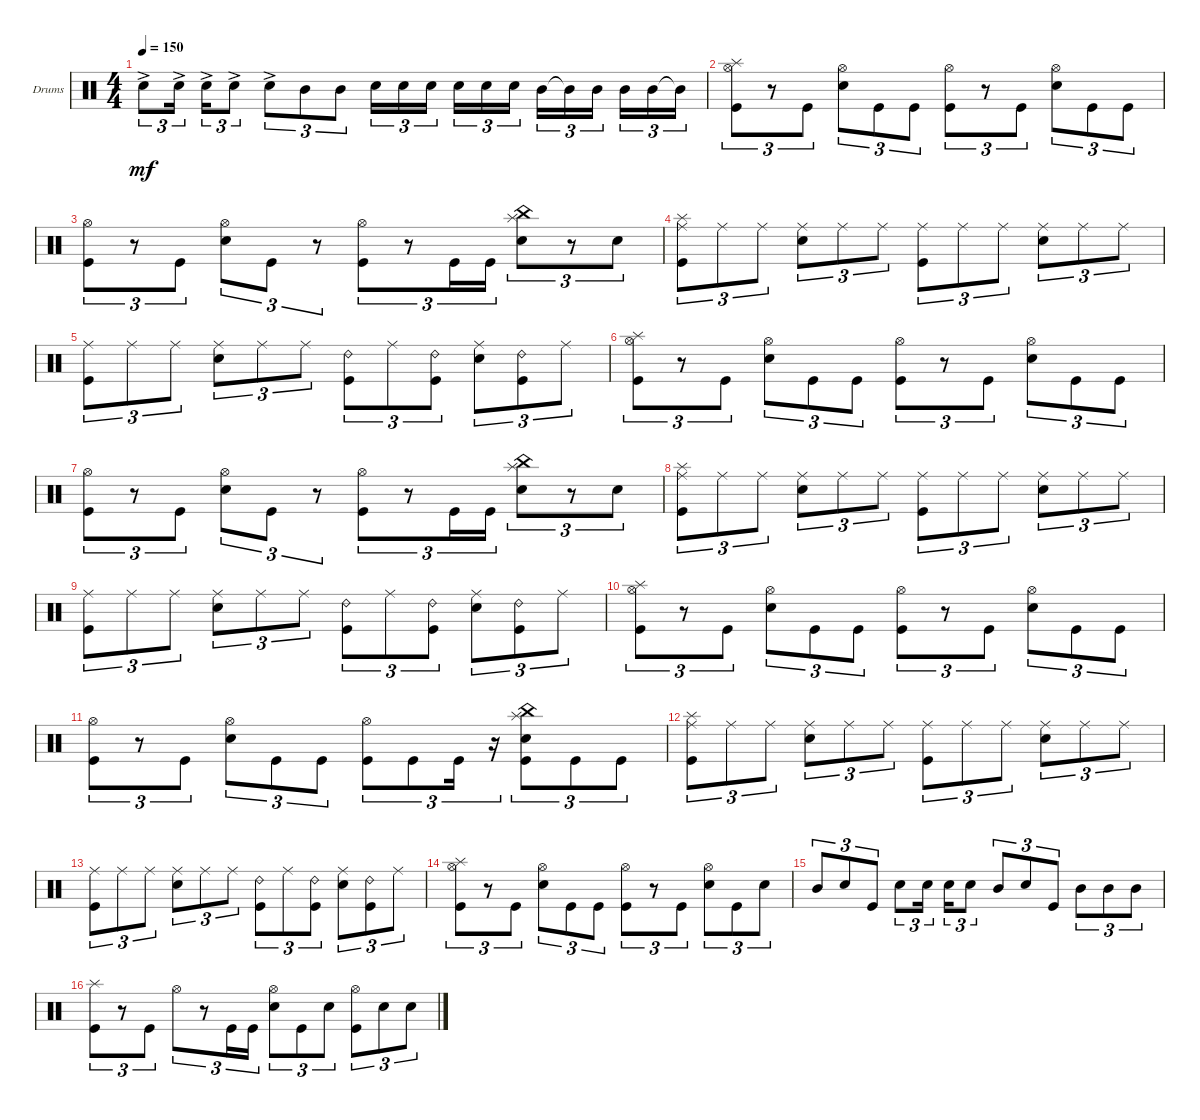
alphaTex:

\bracketExtendMode groupsimilarinstruments
\firstSystemTrackNameOrientation horizontal
\otherSystemsTrackNameOrientation horizontal
\track ("Drumkit" "Drums") {instrument percussion}
\staff {score}
\articulation defaults
\ts (4 4)
\tempo 150
\clef neutral
\ks c "Snare (hit) 2"{ac}.8{tu (3 2) dy mf} "Snare (hit) 2"{ac}.16{tu (3 2)} "Snare (hit) 2"{ac}.16{tu (3 2)} "Snare (hit) 2"{ac}.8{tu (3 2)} "Snare (hit) 2"{ac}.8{tu (3 2)} "Mid Tom (hit)".8{tu (3 2)} "Mid Tom (hit)".8{tu (3 2)} "Snare (hit) 2".16{tu (3 2)} "Snare (hit) 2".16{tu (3 2)} "Snare (hit) 2".16{tu (3 2)} "Snare (hit) 2".16{tu (3 2)} "Snare (hit) 2".16{tu (3 2)} "Snare (hit) 2".16{tu (3 2)} "Mid Tom (hit)".16{tu (3 2)} "Mid Tom (hit)"{t}.16{tu (3 2)} "Mid Tom (hit)".16{tu (3 2)} "Mid Tom (hit)".16{tu (3 2)} "Mid Tom (hit)".16{tu (3 2)} "Mid Tom (hit)"{t}.16{tu (3 2)}
|
("Kick (hit)" "Splash (hit)" "Hi-Hat (open)").8{tu (3 2)} r.8{tu (3 2)} "Kick (hit)".8{tu (3 2)} ("Snare (hit) 2" "Hi-Hat (open)").8{tu (3 2)} "Kick (hit)".8{tu (3 2)} "Kick (hit)".8{tu (3 2)} ("Kick (hit)" "Hi-Hat (open)").8{tu (3 2)} r.8{tu (3 2)} "Kick (hit)".8{tu (3 2)} ("Snare (hit) 2" "Hi-Hat (open)").8{tu (3 2)} "Kick (hit)".8{tu (3 2)} "Kick (hit)".8{tu (3 2)} |
("Kick (hit)" "Hi-Hat (open)").8{tu (3 2)} r.8{tu (3 2)} "Kick (hit)".8{tu (3 2)} ("Snare (hit) 2" "Hi-Hat (open)").8{tu (3 2)} "Kick (hit)".8{tu (3 2)} r.8{tu (3 2)} ("Kick (hit)" "Hi-Hat (open)").8{tu (3 2)} r.8{tu (3 2)} "Kick (hit)".16{tu (3 2)} "Kick (hit)".16{tu (3 2)} ("Snare (hit) 2" "China (hit)" "Splash (hit)").8{tu (3 2)} r.8{tu (3 2)} "Snare (hit) 2".8{tu (3 2)} |
("Kick (hit)" "Splash (hit)" "Ride (middle)").8{tu (3 2)} "Ride (middle)".8{tu (3 2)} "Ride (middle)".8{tu (3 2)} ("Snare (hit) 2" "Ride (middle)").8{tu (3 2)} "Ride (middle)".8{tu (3 2)} "Ride (middle)".8{tu (3 2)} ("Kick (hit)" "Ride (middle)").8{tu (3 2)} "Ride (middle)".8{tu (3 2)} "Ride (middle)".8{tu (3 2)} ("Snare (hit) 2" "Ride (middle)").8{tu (3 2)} "Ride (middle)".8{tu (3 2)} "Ride (middle)".8{tu (3 2)} |
("Kick (hit)" "Ride (middle)").8{tu (3 2)} "Ride (middle)".8{tu (3 2)} "Ride (middle)".8{tu (3 2)} ("Snare (hit) 2" "Ride (middle)").8{tu (3 2)} "Ride (middle)".8{tu (3 2)} "Ride (middle)".8{tu (3 2)} ("Kick (hit)" "Ride (bell) 2").8{tu (3 2)} "Ride (middle)".8{tu (3 2)} ("Kick (hit)" "Ride (bell) 2").8{tu (3 2)} ("Snare (hit) 2" "Ride (middle)").8{tu (3 2)} ("Kick (hit)" "Ride (bell) 2").8{tu (3 2)} "Ride (middle)".8{tu (3 2)} |
("Kick (hit)" "Splash (hit)" "Hi-Hat (open)").8{tu (3 2)} r.8{tu (3 2)} "Kick (hit)".8{tu (3 2)} ("Snare (hit) 2" "Hi-Hat (open)").8{tu (3 2)} "Kick (hit)".8{tu (3 2)} "Kick (hit)".8{tu (3 2)} ("Kick (hit)" "Hi-Hat (open)").8{tu (3 2)} r.8{tu (3 2)} "Kick (hit)".8{tu (3 2)} ("Snare (hit) 2" "Hi-Hat (open)").8{tu (3 2)} "Kick (hit)".8{tu (3 2)} "Kick (hit)".8{tu (3 2)} |
("Kick (hit)" "Hi-Hat (open)").8{tu (3 2)} r.8{tu (3 2)} "Kick (hit)".8{tu (3 2)} ("Snare (hit) 2" "Hi-Hat (open)").8{tu (3 2)} "Kick (hit)".8{tu (3 2)} r.8{tu (3 2)} ("Kick (hit)" "Hi-Hat (open)").8{tu (3 2)} r.8{tu (3 2)} "Kick (hit)".16{tu (3 2)} "Kick (hit)".16{tu (3 2)} ("Snare (hit) 2" "China (hit)" "Splash (hit)").8{tu (3 2)} r.8{tu (3 2)} "Snare (hit) 2".8{tu (3 2)} |
("Kick (hit)" "Splash (hit)" "Ride (middle)").8{tu (3 2)} "Ride (middle)".8{tu (3 2)} "Ride (middle)".8{tu (3 2)} ("Snare (hit) 2" "Ride (middle)").8{tu (3 2)} "Ride (middle)".8{tu (3 2)} "Ride (middle)".8{tu (3 2)} ("Kick (hit)" "Ride (middle)").8{tu (3 2)} "Ride (middle)".8{tu (3 2)} "Ride (middle)".8{tu (3 2)} ("Snare (hit) 2" "Ride (middle)").8{tu (3 2)} "Ride (middle)".8{tu (3 2)} "Ride (middle)".8{tu (3 2)} |
("Kick (hit)" "Ride (middle)").8{tu (3 2)} "Ride (middle)".8{tu (3 2)} "Ride (middle)".8{tu (3 2)} ("Snare (hit) 2" "Ride (middle)").8{tu (3 2)} "Ride (middle)".8{tu (3 2)} "Ride (middle)".8{tu (3 2)} ("Kick (hit)" "Ride (bell) 2").8{tu (3 2)} "Ride (middle)".8{tu (3 2)} ("Kick (hit)" "Ride (bell) 2").8{tu (3 2)} ("Snare (hit) 2" "Ride (middle)").8{tu (3 2)} ("Kick (hit)" "Ride (bell) 2").8{tu (3 2)} "Ride (middle)".8{tu (3 2)} |
("Kick (hit)" "Splash (hit)" "Hi-Hat (open)").8{tu (3 2)} r.8{tu (3 2)} "Kick (hit)".8{tu (3 2)} ("Snare (hit) 2" "Hi-Hat (open)").8{tu (3 2)} "Kick (hit)".8{tu (3 2)} "Kick (hit)".8{tu (3 2)} ("Kick (hit)" "Hi-Hat (open)").8{tu (3 2)} r.8{tu (3 2)} "Kick (hit)".8{tu (3 2)} ("Snare (hit) 2" "Hi-Hat (open)").8{tu (3 2)} "Kick (hit)".8{tu (3 2)} "Kick (hit)".8{tu (3 2)} |
("Kick (hit)" "Hi-Hat (open)").8{tu (3 2)} r.8{tu (3 2)} "Kick (hit)".8{tu (3 2)} ("Snare (hit) 2" "Hi-Hat (open)").8{tu (3 2)} "Kick (hit)".8{tu (3 2)} "Kick (hit)".8{tu (3 2)} ("Kick (hit)" "Hi-Hat (open)").8{tu (3 2)} "Kick (hit)".8{tu (3 2)} "Kick (hit)".16{tu (3 2)} r.16{tu (3 2)} ("Snare (hit) 2" "China (hit)" "Splash (hit)" "Kick (hit)").8{tu (3 2)} "Kick (hit)".8{tu (3 2)} "Kick (hit)".8{tu (3 2)} |
("Kick (hit)" "Splash (hit)" "Ride (middle)").8{tu (3 2)} "Ride (middle)".8{tu (3 2)} "Ride (middle)".8{tu (3 2)} ("Snare (hit) 2" "Ride (middle)").8{tu (3 2)} "Ride (middle)".8{tu (3 2)} "Ride (middle)".8{tu (3 2)} ("Kick (hit)" "Ride (middle)").8{tu (3 2)} "Ride (middle)".8{tu (3 2)} "Ride (middle)".8{tu (3 2)} ("Snare (hit) 2" "Ride (middle)").8{tu (3 2)} "Ride (middle)".8{tu (3 2)} "Ride (middle)".8{tu (3 2)} |
("Kick (hit)" "Ride (middle)").8{tu (3 2)} "Ride (middle)".8{tu (3 2)} "Ride (middle)".8{tu (3 2)} ("Snare (hit) 2" "Ride (middle)").8{tu (3 2)} "Ride (middle)".8{tu (3 2)} "Ride (middle)".8{tu (3 2)} ("Kick (hit)" "Ride (bell) 2").8{tu (3 2)} "Ride (middle)".8{tu (3 2)} ("Kick (hit)" "Ride (bell) 2").8{tu (3 2)} ("Snare (hit) 2" "Ride (middle)").8{tu (3 2)} ("Kick (hit)" "Ride (bell) 2").8{tu (3 2)} "Ride (middle)".8{tu (3 2)} |
("Kick (hit)" "Splash (hit)" "Hi-Hat (open)").8{tu (3 2)} r.8{tu (3 2)} "Kick (hit)".8{tu (3 2)} ("Snare (hit) 2" "Hi-Hat (open)").8{tu (3 2)} "Kick (hit)".8{tu (3 2)} "Kick (hit)".8{tu (3 2)} ("Kick (hit)" "Hi-Hat (open)").8{tu (3 2)} r.8{tu (3 2)} "Kick (hit)".8{tu (3 2)} ("Snare (hit) 2" "Hi-Hat (open)").8{tu (3 2)} "Kick (hit)".8{tu (3 2)} "Snare (hit) 2".8{tu (3 2)} |
"Mid Tom (hit)".8{tu (3 2)} "Snare (hit) 2".8{tu (3 2)} "Kick (hit)".8{tu (3 2)} "Snare (hit) 2".8{tu (3 2)} "Snare (hit) 2".16{tu (3 2)} "Snare (hit) 2".16{tu (3 2)} "Snare (hit) 2".8{tu (3 2)} "Mid Tom (hit)".8{tu (3 2)} "Snare (hit) 2".8{tu (3 2)} "Kick (hit)".8{tu (3 2)} "Mid Tom (hit)".8{tu (3 2)} "Mid Tom (hit)".8{tu (3 2)} "Mid Tom (hit)".8{tu (3 2)} |
("Kick (hit)" "Splash (hit)").8{tu (3 2)} r.8{tu (3 2)} "Kick (hit)".8{tu (3 2)} "Hi-Hat (open)".8{tu (3 2)} r.8{tu (3 2)} "Kick (hit)".16{tu (3 2)} "Kick (hit)".16{tu (3 2)} ("Snare (hit) 2" "Hi-Hat (open)").8{tu (3 2)} "Kick (hit)".8{tu (3 2)} "Snare (hit) 2".8{tu (3 2)} ("Kick (hit)" "Hi-Hat (open)").8{tu (3 2)} "Snare (hit) 2".8{tu (3 2)} "Snare (hit) 2".8{tu (3 2)}
